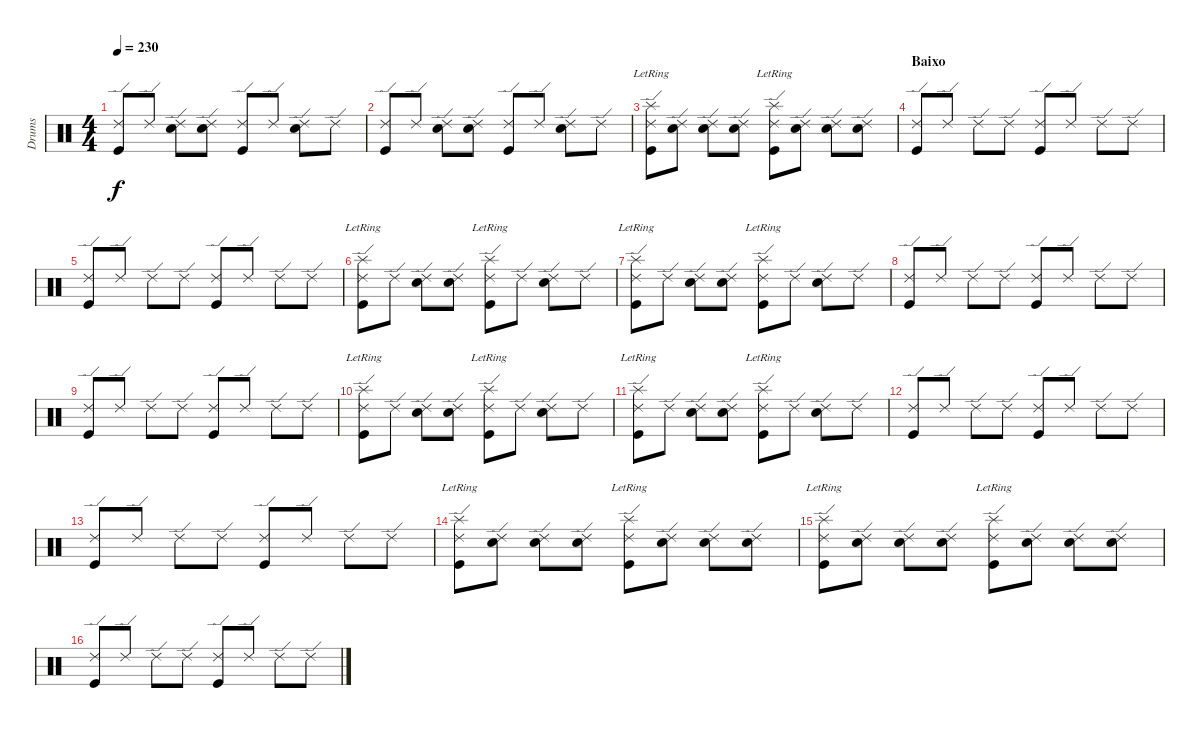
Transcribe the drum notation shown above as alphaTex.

\track ("Drums" "Drums") {instrument percussion}
\staff {score}
\articulation defaults
\ts (4 4)
\tempo 230
\clef neutral
\ks c
("Ride (edge) 2" "Kick (hit)").8{dy f} "Ride (edge) 2".8 ("Ride (edge) 2" "Snare (hit) 2").8 ("Ride (edge) 2" "Snare (hit) 2").8 ("Ride (edge) 2" "Kick (hit)").8 "Ride (edge) 2".8 ("Ride (edge) 2" "Snare (hit) 2").8 "Ride (edge) 2".8 |
("Ride (edge) 2" "Kick (hit)").8 "Ride (edge) 2".8 ("Ride (edge) 2" "Snare (hit) 2").8 ("Ride (edge) 2" "Snare (hit) 2").8 ("Ride (edge) 2" "Kick (hit)").8 "Ride (edge) 2".8 ("Ride (edge) 2" "Snare (hit) 2").8 "Ride (edge) 2".8 |
("Ride (edge) 2" "Splash (hit)"{lr} "Kick (hit)").8 ("Ride (edge) 2" "Snare (hit) 2").8 ("Ride (edge) 2" "Snare (hit) 2").8 ("Ride (edge) 2" "Snare (hit) 2").8 ("Ride (edge) 2" "Splash (hit)"{lr} "Kick (hit)").8 ("Ride (edge) 2" "Snare (hit) 2").8 ("Ride (edge) 2" "Snare (hit) 2").8 ("Ride (edge) 2" "Snare (hit) 2").8 |
\section ("" "Baixo")
("Ride (edge) 2" "Kick (hit)").8 "Ride (edge) 2".8 "Ride (edge) 2".8 "Ride (edge) 2".8 ("Ride (edge) 2" "Kick (hit)").8 "Ride (edge) 2".8 "Ride (edge) 2".8 "Ride (edge) 2".8 |
("Ride (edge) 2" "Kick (hit)").8 "Ride (edge) 2".8 "Ride (edge) 2".8 "Ride (edge) 2".8 ("Ride (edge) 2" "Kick (hit)").8 "Ride (edge) 2".8 "Ride (edge) 2".8 "Ride (edge) 2".8 |
("Ride (edge) 2" "Splash (hit)"{lr} "Kick (hit)").8 "Ride (edge) 2".8 ("Ride (edge) 2" "Snare (hit) 2").8 ("Ride (edge) 2" "Snare (hit) 2").8 ("Ride (edge) 2" "Splash (hit)"{lr} "Kick (hit)").8 "Ride (edge) 2".8 ("Ride (edge) 2" "Snare (hit) 2").8 "Ride (edge) 2".8 |
("Ride (edge) 2" "Splash (hit)"{lr} "Kick (hit)").8 "Ride (edge) 2".8 ("Ride (edge) 2" "Snare (hit) 2").8 ("Ride (edge) 2" "Snare (hit) 2").8 ("Ride (edge) 2" "Splash (hit)"{lr} "Kick (hit)").8 "Ride (edge) 2".8 ("Ride (edge) 2" "Snare (hit) 2").8 "Ride (edge) 2".8 |
("Ride (edge) 2" "Kick (hit)").8 "Ride (edge) 2".8 "Ride (edge) 2".8 "Ride (edge) 2".8 ("Ride (edge) 2" "Kick (hit)").8 "Ride (edge) 2".8 "Ride (edge) 2".8 "Ride (edge) 2".8 |
("Ride (edge) 2" "Kick (hit)").8 "Ride (edge) 2".8 "Ride (edge) 2".8 "Ride (edge) 2".8 ("Ride (edge) 2" "Kick (hit)").8 "Ride (edge) 2".8 "Ride (edge) 2".8 "Ride (edge) 2".8 |
("Ride (edge) 2" "Splash (hit)"{lr} "Kick (hit)").8 "Ride (edge) 2".8 ("Ride (edge) 2" "Snare (hit) 2").8 ("Ride (edge) 2" "Snare (hit) 2").8 ("Ride (edge) 2" "Splash (hit)"{lr} "Kick (hit)").8 "Ride (edge) 2".8 ("Ride (edge) 2" "Snare (hit) 2").8 "Ride (edge) 2".8 |
("Ride (edge) 2" "Splash (hit)"{lr} "Kick (hit)").8 "Ride (edge) 2".8 ("Ride (edge) 2" "Snare (hit) 2").8 ("Ride (edge) 2" "Snare (hit) 2").8 ("Ride (edge) 2" "Splash (hit)"{lr} "Kick (hit)").8 "Ride (edge) 2".8 ("Ride (edge) 2" "Snare (hit) 2").8 "Ride (edge) 2".8 |
("Ride (edge) 2" "Kick (hit)").8 "Ride (edge) 2".8 "Ride (edge) 2".8 "Ride (edge) 2".8 ("Ride (edge) 2" "Kick (hit)").8 "Ride (edge) 2".8 "Ride (edge) 2".8 "Ride (edge) 2".8 |
("Ride (edge) 2" "Kick (hit)").8 "Ride (edge) 2".8 "Ride (edge) 2".8 "Ride (edge) 2".8 ("Ride (edge) 2" "Kick (hit)").8 "Ride (edge) 2".8 "Ride (edge) 2".8 "Ride (edge) 2".8 |
("Ride (edge) 2" "Splash (hit)"{lr} "Kick (hit)").8 ("Ride (edge) 2" "Snare (hit) 2").8 ("Ride (edge) 2" "Snare (hit) 2").8 ("Ride (edge) 2" "Snare (hit) 2").8 ("Ride (edge) 2" "Splash (hit)"{lr} "Kick (hit)").8 ("Ride (edge) 2" "Snare (hit) 2").8 ("Ride (edge) 2" "Snare (hit) 2").8 ("Ride (edge) 2" "Snare (hit) 2").8 |
("Ride (edge) 2" "Splash (hit)"{lr} "Kick (hit)").8 ("Ride (edge) 2" "Snare (hit) 2").8 ("Ride (edge) 2" "Snare (hit) 2").8 ("Ride (edge) 2" "Snare (hit) 2").8 ("Ride (edge) 2" "Splash (hit)"{lr} "Kick (hit)").8 ("Ride (edge) 2" "Snare (hit) 2").8 ("Ride (edge) 2" "Snare (hit) 2").8 ("Ride (edge) 2" "Snare (hit) 2").8 |
("Ride (edge) 2" "Kick (hit)").8 "Ride (edge) 2".8 "Ride (edge) 2".8 "Ride (edge) 2".8 ("Ride (edge) 2" "Kick (hit)").8 "Ride (edge) 2".8 "Ride (edge) 2".8 "Ride (edge) 2".8
